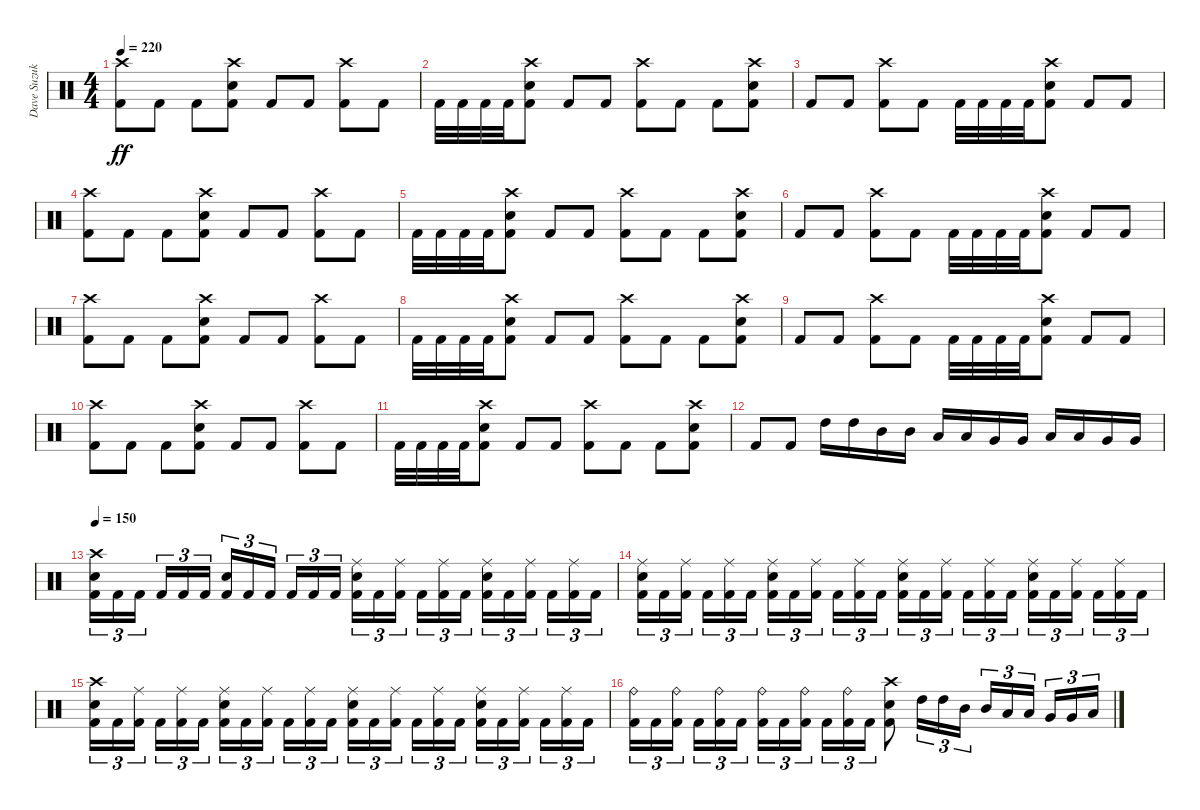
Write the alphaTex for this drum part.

\track ("Dave Suzuki - Drums" "Dave Suzuk") {instrument percussion}
\staff {score}
\articulation defaults
\ts (4 4)
\tempo 220
\clef neutral
\ks c
("Crash high (hit)" "Kick (hit) 2").8{dy ff} "Kick (hit) 2".8 "Kick (hit) 2".8 ("Crash high (hit)" "Electric Snare (hit)" "Kick (hit) 2").8 "Kick (hit) 2".8 "Kick (hit) 2".8 ("Crash high (hit)" "Kick (hit) 2").8 "Kick (hit) 2".8 |
"Kick (hit) 2".32 "Kick (hit) 2".32 "Kick (hit) 2".32 "Kick (hit) 2".32 ("Crash high (hit)" "Electric Snare (hit)" "Kick (hit) 2").8 "Kick (hit) 2".8 "Kick (hit) 2".8 ("Crash high (hit)" "Kick (hit) 2").8 "Kick (hit) 2".8 "Kick (hit) 2".8 ("Crash high (hit)" "Electric Snare (hit)" "Kick (hit) 2").8 |
"Kick (hit) 2".8 "Kick (hit) 2".8 ("Crash high (hit)" "Kick (hit) 2").8 "Kick (hit) 2".8 "Kick (hit) 2".32 "Kick (hit) 2".32 "Kick (hit) 2".32 "Kick (hit) 2".32 ("Crash high (hit)" "Electric Snare (hit)" "Kick (hit) 2").8 "Kick (hit) 2".8 "Kick (hit) 2".8 |
("Crash high (hit)" "Kick (hit) 2").8 "Kick (hit) 2".8 "Kick (hit) 2".8 ("Crash high (hit)" "Electric Snare (hit)" "Kick (hit) 2").8 "Kick (hit) 2".8 "Kick (hit) 2".8 ("Crash high (hit)" "Kick (hit) 2").8 "Kick (hit) 2".8 |
"Kick (hit) 2".32 "Kick (hit) 2".32 "Kick (hit) 2".32 "Kick (hit) 2".32 ("Crash high (hit)" "Electric Snare (hit)" "Kick (hit) 2").8 "Kick (hit) 2".8 "Kick (hit) 2".8 ("Crash high (hit)" "Kick (hit) 2").8 "Kick (hit) 2".8 "Kick (hit) 2".8 ("Crash high (hit)" "Electric Snare (hit)" "Kick (hit) 2").8 |
"Kick (hit) 2".8 "Kick (hit) 2".8 ("Crash high (hit)" "Kick (hit) 2").8 "Kick (hit) 2".8 "Kick (hit) 2".32 "Kick (hit) 2".32 "Kick (hit) 2".32 "Kick (hit) 2".32 ("Crash high (hit)" "Electric Snare (hit)" "Kick (hit) 2").8 "Kick (hit) 2".8 "Kick (hit) 2".8 |
("Crash high (hit)" "Kick (hit) 2").8 "Kick (hit) 2".8 "Kick (hit) 2".8 ("Crash high (hit)" "Electric Snare (hit)" "Kick (hit) 2").8 "Kick (hit) 2".8 "Kick (hit) 2".8 ("Crash high (hit)" "Kick (hit) 2").8 "Kick (hit) 2".8 |
"Kick (hit) 2".32 "Kick (hit) 2".32 "Kick (hit) 2".32 "Kick (hit) 2".32 ("Crash high (hit)" "Electric Snare (hit)" "Kick (hit) 2").8 "Kick (hit) 2".8 "Kick (hit) 2".8 ("Crash high (hit)" "Kick (hit) 2").8 "Kick (hit) 2".8 "Kick (hit) 2".8 ("Crash high (hit)" "Electric Snare (hit)" "Kick (hit) 2").8 |
"Kick (hit) 2".8 "Kick (hit) 2".8 ("Crash high (hit)" "Kick (hit) 2").8 "Kick (hit) 2".8 "Kick (hit) 2".32 "Kick (hit) 2".32 "Kick (hit) 2".32 "Kick (hit) 2".32 ("Crash high (hit)" "Electric Snare (hit)" "Kick (hit) 2").8 "Kick (hit) 2".8 "Kick (hit) 2".8 |
("Crash high (hit)" "Kick (hit) 2").8 "Kick (hit) 2".8 "Kick (hit) 2".8 ("Crash high (hit)" "Electric Snare (hit)" "Kick (hit) 2").8 "Kick (hit) 2".8 "Kick (hit) 2".8 ("Crash high (hit)" "Kick (hit) 2").8 "Kick (hit) 2".8 |
"Kick (hit) 2".32 "Kick (hit) 2".32 "Kick (hit) 2".32 "Kick (hit) 2".32 ("Crash high (hit)" "Electric Snare (hit)" "Kick (hit) 2").8 "Kick (hit) 2".8 "Kick (hit) 2".8 ("Crash high (hit)" "Kick (hit) 2").8 "Kick (hit) 2".8 "Kick (hit) 2".8 ("Crash high (hit)" "Electric Snare (hit)" "Kick (hit) 2").8 |
"Kick (hit) 2".8 "Kick (hit) 2".8 "High Tom (hit)".16 "High Tom (hit)".16 "Mid Tom (hit)".16 "Mid Tom (hit)".16 "Low Tom (hit)".16 "Low Tom (hit)".16 "Very Low Tom (hit)".16 "Very Low Tom (hit)".16 "Low Tom (hit)".16 "Low Tom (hit)".16 "Very Low Tom (hit)".16 "Very Low Tom (hit)".16 |
\tempo 150
("Crash high (hit)" "Electric Snare (hit)" "Kick (hit) 2").16{tu (3 2)} "Kick (hit) 2".16{tu (3 2)} "Kick (hit) 2".16{tu (3 2) beam splitsecondary} "Kick (hit) 2".16{tu (3 2)} "Kick (hit) 2".16{tu (3 2)} "Kick (hit) 2".16{tu (3 2)} ("Electric Snare (hit)" "Kick (hit) 2").16{tu (3 2)} "Kick (hit) 2".16{tu (3 2)} "Kick (hit) 2".16{tu (3 2) beam splitsecondary} "Kick (hit) 2".16{tu (3 2)} "Kick (hit) 2".16{tu (3 2)} "Kick (hit) 2".16{tu (3 2)} ("Ride (middle)" "Electric Snare (hit)" "Kick (hit) 2").16{tu (3 2)} "Kick (hit) 2".16{tu (3 2)} ("Ride (middle)" "Kick (hit) 2").16{tu (3 2) beam splitsecondary} "Kick (hit) 2".16{tu (3 2)} ("Ride (middle)" "Kick (hit) 2").16{tu (3 2)} "Kick (hit) 2".16{tu (3 2)} ("Ride (middle)" "Electric Snare (hit)" "Kick (hit) 2").16{tu (3 2)} "Kick (hit) 2".16{tu (3 2)} ("Ride (middle)" "Kick (hit) 2").16{tu (3 2) beam splitsecondary} "Kick (hit) 2".16{tu (3 2)} ("Ride (middle)" "Kick (hit) 2").16{tu (3 2)} "Kick (hit) 2".16{tu (3 2)} |
("Ride (middle)" "Electric Snare (hit)" "Kick (hit) 2").16{tu (3 2)} "Kick (hit) 2".16{tu (3 2)} ("Ride (middle)" "Kick (hit) 2").16{tu (3 2) beam splitsecondary} "Kick (hit) 2".16{tu (3 2)} ("Ride (middle)" "Kick (hit) 2").16{tu (3 2)} "Kick (hit) 2".16{tu (3 2)} ("Ride (middle)" "Electric Snare (hit)" "Kick (hit) 2").16{tu (3 2)} "Kick (hit) 2".16{tu (3 2)} ("Ride (middle)" "Kick (hit) 2").16{tu (3 2) beam splitsecondary} "Kick (hit) 2".16{tu (3 2)} ("Ride (middle)" "Kick (hit) 2").16{tu (3 2)} "Kick (hit) 2".16{tu (3 2)} ("Ride (middle)" "Electric Snare (hit)" "Kick (hit) 2").16{tu (3 2)} "Kick (hit) 2".16{tu (3 2)} ("Ride (middle)" "Kick (hit) 2").16{tu (3 2) beam splitsecondary} "Kick (hit) 2".16{tu (3 2)} ("Ride (middle)" "Kick (hit) 2").16{tu (3 2)} "Kick (hit) 2".16{tu (3 2)} ("Ride (middle)" "Electric Snare (hit)" "Kick (hit) 2").16{tu (3 2)} "Kick (hit) 2".16{tu (3 2)} ("Ride (middle)" "Kick (hit) 2").16{tu (3 2) beam splitsecondary} "Kick (hit) 2".16{tu (3 2)} ("Ride (middle)" "Kick (hit) 2").16{tu (3 2)} "Kick (hit) 2".16{tu (3 2)} |
("Crash high (hit)" "Electric Snare (hit)" "Kick (hit) 2").16{tu (3 2)} "Kick (hit) 2".16{tu (3 2)} ("Ride (middle)" "Kick (hit) 2").16{tu (3 2) beam splitsecondary} "Kick (hit) 2".16{tu (3 2)} ("Ride (middle)" "Kick (hit) 2").16{tu (3 2)} "Kick (hit) 2".16{tu (3 2)} ("Ride (middle)" "Electric Snare (hit)" "Kick (hit) 2").16{tu (3 2)} "Kick (hit) 2".16{tu (3 2)} ("Ride (middle)" "Kick (hit) 2").16{tu (3 2) beam splitsecondary} "Kick (hit) 2".16{tu (3 2)} ("Ride (middle)" "Kick (hit) 2").16{tu (3 2)} "Kick (hit) 2".16{tu (3 2)} ("Ride (middle)" "Electric Snare (hit)" "Kick (hit) 2").16{tu (3 2)} "Kick (hit) 2".16{tu (3 2)} ("Ride (middle)" "Kick (hit) 2").16{tu (3 2) beam splitsecondary} "Kick (hit) 2".16{tu (3 2)} ("Ride (middle)" "Kick (hit) 2").16{tu (3 2)} "Kick (hit) 2".16{tu (3 2)} ("Ride (middle)" "Electric Snare (hit)" "Kick (hit) 2").16{tu (3 2)} "Kick (hit) 2".16{tu (3 2)} ("Ride (middle)" "Kick (hit) 2").16{tu (3 2) beam splitsecondary} "Kick (hit) 2".16{tu (3 2)} ("Ride (middle)" "Kick (hit) 2").16{tu (3 2)} "Kick (hit) 2".16{tu (3 2)} |
("Ride (bell)" "Kick (hit) 2").16{tu (3 2)} "Kick (hit) 2".16{tu (3 2)} ("Ride (bell)" "Kick (hit) 2").16{tu (3 2) beam splitsecondary} "Kick (hit) 2".16{tu (3 2)} ("Ride (bell)" "Kick (hit) 2").16{tu (3 2)} "Kick (hit) 2".16{tu (3 2)} ("Ride (bell)" "Kick (hit) 2").16{tu (3 2)} "Kick (hit) 2".16{tu (3 2)} ("Ride (bell)" "Kick (hit) 2").16{tu (3 2) beam splitsecondary} "Kick (hit) 2".16{tu (3 2)} ("Ride (bell)" "Kick (hit) 2").16{tu (3 2)} "Kick (hit) 2".16{tu (3 2)} ("Crash high (hit)" "Electric Snare (hit)" "Kick (hit) 2").8 "High Tom (hit)".16{tu (3 2)} "High Tom (hit)".16{tu (3 2)} "Mid Tom (hit)".16{tu (3 2)} "Mid Tom (hit)".16{tu (3 2)} "Low Tom (hit)".16{tu (3 2)} "Low Tom (hit)".16{tu (3 2) beam splitsecondary} "Very Low Tom (hit)".16{tu (3 2)} "Very Low Tom (hit)".16{tu (3 2)} "Low Floor Tom (hit)".16{tu (3 2)}
